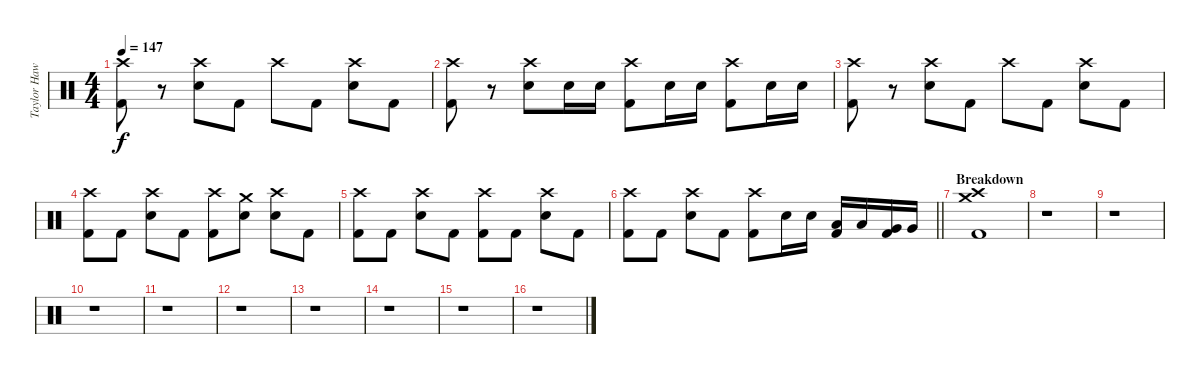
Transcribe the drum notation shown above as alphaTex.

\track ("Taylor Hawkins - Drums" "Taylor Haw") {instrument percussion}
\staff {score}
\articulation defaults
\ts (4 4)
\tempo 147
\clef neutral
\ks c
("Crash high (hit)" "Kick (hit) 2").8{dy f} r.8 ("Crash high (hit)" "Snare (hit) 2").8 "Kick (hit) 2".8 "Crash high (hit)".8 "Kick (hit) 2".8 ("Crash high (hit)" "Snare (hit) 2").8 "Kick (hit) 2".8 |
("Crash high (hit)" "Kick (hit) 2").8 r.8 ("Crash high (hit)" "Snare (hit) 2").8 "Snare (hit) 2".16 "Snare (hit) 2".16 ("Crash high (hit)" "Kick (hit) 2").8 "Snare (hit) 2".16 "Snare (hit) 2".16 ("Crash high (hit)" "Kick (hit) 2").8 "Snare (hit) 2".16 "Snare (hit) 2".16 |
("Crash high (hit)" "Kick (hit) 2").8 r.8 ("Crash high (hit)" "Snare (hit) 2").8 "Kick (hit) 2".8 "Crash high (hit)".8 "Kick (hit) 2".8 ("Crash high (hit)" "Snare (hit) 2").8 "Kick (hit) 2".8 |
("Crash high (hit)" "Kick (hit) 2").8 "Kick (hit) 2".8 ("Crash high (hit)" "Snare (hit) 2").8 "Kick (hit) 2".8 ("Crash high (hit)" "Kick (hit) 2").8 ("Crash medium (hit)" "Snare (hit) 2").8 ("Crash high (hit)" "Snare (hit) 2").8 "Kick (hit) 2".8 |
("Crash high (hit)" "Kick (hit) 2").8 "Kick (hit) 2".8 ("Crash high (hit)" "Snare (hit) 2").8 "Kick (hit) 2".8 ("Crash high (hit)" "Kick (hit) 2").8 "Kick (hit) 2".8 ("Crash high (hit)" "Snare (hit) 2").8 "Kick (hit) 2".8 |
\barLineRight lightlight
("Crash high (hit)" "Kick (hit) 2").8 "Kick (hit) 2".8 ("Crash high (hit)" "Snare (hit) 2").8 "Kick (hit) 2".8 ("Crash high (hit)" "Kick (hit) 2").8 "Snare (hit) 2".16 "Snare (hit) 2".16 ("Low Tom (hit)" "Kick (hit) 2").16 "Low Tom (hit)".16 ("Very Low Tom (hit)" "Kick (hit) 2").16 "Very Low Tom (hit)".16 |
\section ("" "Breakdown")
("Crash medium (hit)" "Crash high (hit)" "Kick (hit) 2").1 |
r.1 |
r.1 |
r.1 |
r.1 |
r.1 |
r.1 |
r.1 |
r.1 |
r.1
